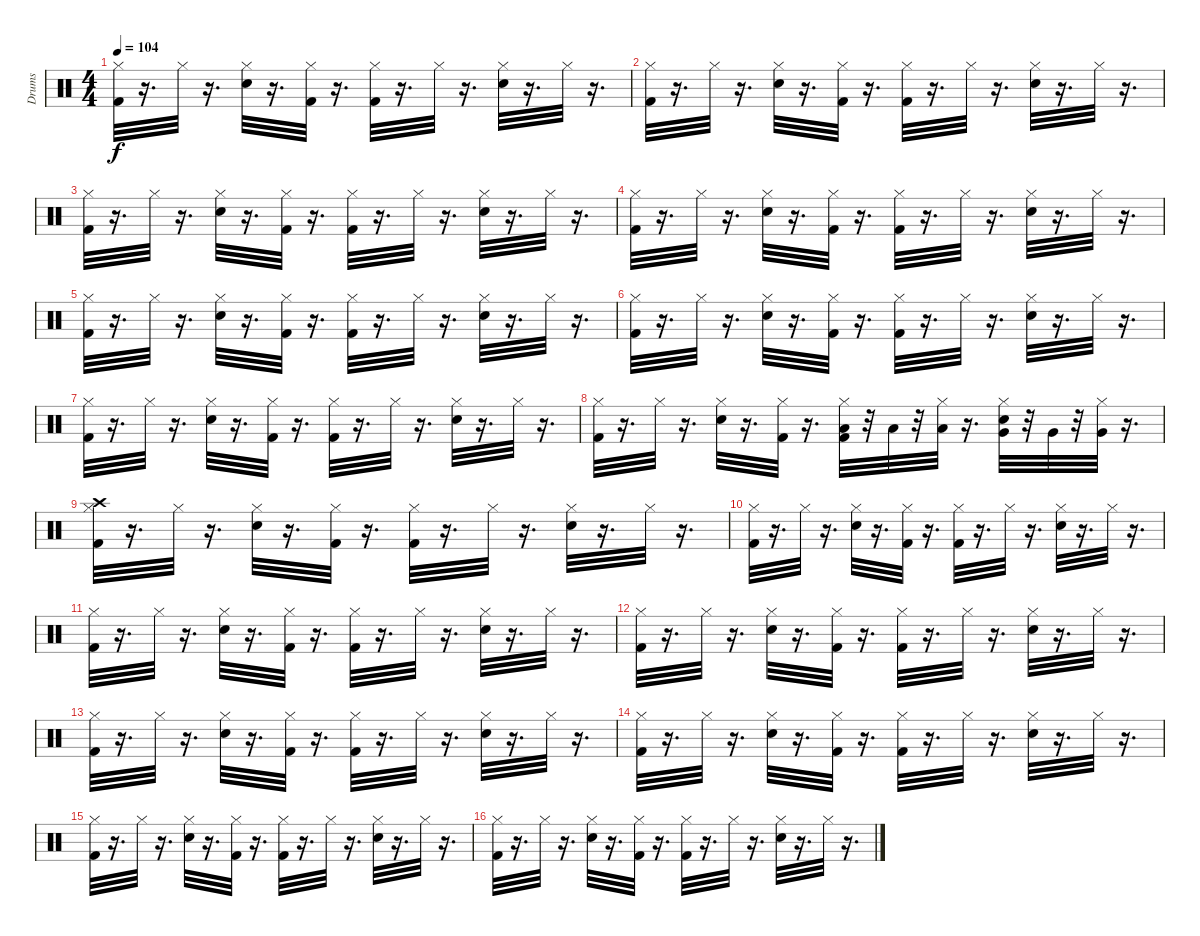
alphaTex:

\track ("Drums" "Drums") {instrument percussion}
\staff {score}
\articulation defaults
\ts (4 4)
\tempo 104
\clef neutral
\ks c
("Hi-Hat (closed)" "Kick (hit) 2").32{dy f} r.16{d} "Hi-Hat (closed)".32 r.16{d} ("Hi-Hat (closed)" "Snare (hit) 2").32 r.16{d} ("Kick (hit) 2" "Hi-Hat (closed)").32 r.16{d} ("Hi-Hat (closed)" "Kick (hit) 2").32 r.16{d} "Hi-Hat (closed)".32 r.16{d} ("Hi-Hat (closed)" "Snare (hit) 2").32 r.16{d} "Hi-Hat (closed)".32 r.16{d} |
("Hi-Hat (closed)" "Kick (hit) 2").32 r.16{d} "Hi-Hat (closed)".32 r.16{d} ("Hi-Hat (closed)" "Snare (hit) 2").32 r.16{d} ("Kick (hit) 2" "Hi-Hat (closed)").32 r.16{d} ("Hi-Hat (closed)" "Kick (hit) 2").32 r.16{d} "Hi-Hat (closed)".32 r.16{d} ("Hi-Hat (closed)" "Snare (hit) 2").32 r.16{d} "Hi-Hat (closed)".32 r.16{d} |
("Hi-Hat (closed)" "Kick (hit) 2").32 r.16{d} "Hi-Hat (closed)".32 r.16{d} ("Hi-Hat (closed)" "Snare (hit) 2").32 r.16{d} ("Kick (hit) 2" "Hi-Hat (closed)").32 r.16{d} ("Hi-Hat (closed)" "Kick (hit) 2").32 r.16{d} "Hi-Hat (closed)".32 r.16{d} ("Hi-Hat (closed)" "Snare (hit) 2").32 r.16{d} "Hi-Hat (closed)".32 r.16{d} |
("Hi-Hat (closed)" "Kick (hit) 2").32 r.16{d} "Hi-Hat (closed)".32 r.16{d} ("Hi-Hat (closed)" "Snare (hit) 2").32 r.16{d} ("Kick (hit) 2" "Hi-Hat (closed)").32 r.16{d} ("Hi-Hat (closed)" "Kick (hit) 2").32 r.16{d} "Hi-Hat (closed)".32 r.16{d} ("Hi-Hat (closed)" "Snare (hit) 2").32 r.16{d} "Hi-Hat (closed)".32 r.16{d} |
("Hi-Hat (closed)" "Kick (hit) 2").32 r.16{d} "Hi-Hat (closed)".32 r.16{d} ("Hi-Hat (closed)" "Snare (hit) 2").32 r.16{d} ("Kick (hit) 2" "Hi-Hat (closed)").32 r.16{d} ("Hi-Hat (closed)" "Kick (hit) 2").32 r.16{d} "Hi-Hat (closed)".32 r.16{d} ("Hi-Hat (closed)" "Snare (hit) 2").32 r.16{d} "Hi-Hat (closed)".32 r.16{d} |
("Hi-Hat (closed)" "Kick (hit) 2").32 r.16{d} "Hi-Hat (closed)".32 r.16{d} ("Hi-Hat (closed)" "Snare (hit) 2").32 r.16{d} ("Kick (hit) 2" "Hi-Hat (closed)").32 r.16{d} ("Hi-Hat (closed)" "Kick (hit) 2").32 r.16{d} "Hi-Hat (closed)".32 r.16{d} ("Hi-Hat (closed)" "Snare (hit) 2").32 r.16{d} "Hi-Hat (closed)".32 r.16{d} |
("Hi-Hat (closed)" "Kick (hit) 2").32 r.16{d} "Hi-Hat (closed)".32 r.16{d} ("Hi-Hat (closed)" "Snare (hit) 2").32 r.16{d} ("Kick (hit) 2" "Hi-Hat (closed)").32 r.16{d} ("Hi-Hat (closed)" "Kick (hit) 2").32 r.16{d} "Hi-Hat (closed)".32 r.16{d} ("Hi-Hat (closed)" "Snare (hit) 2").32 r.16{d} "Hi-Hat (closed)".32 r.16{d} |
("Hi-Hat (closed)" "Kick (hit) 2").32 r.16{d} "Hi-Hat (closed)".32 r.16{d} ("Hi-Hat (closed)" "Snare (hit) 2").32 r.16{d} ("Kick (hit) 2" "Hi-Hat (closed)").32 r.16{d} ("Low Tom (hit)" "Hi-Hat (closed)" "Kick (hit) 2").32 r.32 "Low Tom (hit)".32 r.32 ("Low Tom (hit)" "Hi-Hat (closed)").32 r.16{d} ("Very Low Tom (hit)" "Hi-Hat (closed)" "Snare (hit) 2").32 r.32 "Very Low Tom (hit)".32 r.32 ("Very Low Tom (hit)" "Hi-Hat (closed)").32 r.16{d} |
("Crash high (hit)" "Hi-Hat (closed)" "Kick (hit) 2").32 r.16{d} "Hi-Hat (closed)".32 r.16{d} ("Hi-Hat (closed)" "Snare (hit) 2").32 r.16{d} ("Kick (hit) 2" "Hi-Hat (closed)").32 r.16{d} ("Hi-Hat (closed)" "Kick (hit) 2").32 r.16{d} "Hi-Hat (closed)".32 r.16{d} ("Hi-Hat (closed)" "Snare (hit) 2").32 r.16{d} "Hi-Hat (closed)".32 r.16{d} |
("Hi-Hat (closed)" "Kick (hit) 2").32 r.16{d} "Hi-Hat (closed)".32 r.16{d} ("Hi-Hat (closed)" "Snare (hit) 2").32 r.16{d} ("Kick (hit) 2" "Hi-Hat (closed)").32 r.16{d} ("Hi-Hat (closed)" "Kick (hit) 2").32 r.16{d} "Hi-Hat (closed)".32 r.16{d} ("Hi-Hat (closed)" "Snare (hit) 2").32 r.16{d} "Hi-Hat (closed)".32 r.16{d} |
("Hi-Hat (closed)" "Kick (hit) 2").32 r.16{d} "Hi-Hat (closed)".32 r.16{d} ("Hi-Hat (closed)" "Snare (hit) 2").32 r.16{d} ("Kick (hit) 2" "Hi-Hat (closed)").32 r.16{d} ("Hi-Hat (closed)" "Kick (hit) 2").32 r.16{d} "Hi-Hat (closed)".32 r.16{d} ("Hi-Hat (closed)" "Snare (hit) 2").32 r.16{d} "Hi-Hat (closed)".32 r.16{d} |
("Hi-Hat (closed)" "Kick (hit) 2").32 r.16{d} "Hi-Hat (closed)".32 r.16{d} ("Hi-Hat (closed)" "Snare (hit) 2").32 r.16{d} ("Kick (hit) 2" "Hi-Hat (closed)").32 r.16{d} ("Hi-Hat (closed)" "Kick (hit) 2").32 r.16{d} "Hi-Hat (closed)".32 r.16{d} ("Hi-Hat (closed)" "Snare (hit) 2").32 r.16{d} "Hi-Hat (closed)".32 r.16{d} |
("Hi-Hat (closed)" "Kick (hit) 2").32 r.16{d} "Hi-Hat (closed)".32 r.16{d} ("Hi-Hat (closed)" "Snare (hit) 2").32 r.16{d} ("Kick (hit) 2" "Hi-Hat (closed)").32 r.16{d} ("Hi-Hat (closed)" "Kick (hit) 2").32 r.16{d} "Hi-Hat (closed)".32 r.16{d} ("Hi-Hat (closed)" "Snare (hit) 2").32 r.16{d} "Hi-Hat (closed)".32 r.16{d} |
("Hi-Hat (closed)" "Kick (hit) 2").32 r.16{d} "Hi-Hat (closed)".32 r.16{d} ("Hi-Hat (closed)" "Snare (hit) 2").32 r.16{d} ("Kick (hit) 2" "Hi-Hat (closed)").32 r.16{d} ("Hi-Hat (closed)" "Kick (hit) 2").32 r.16{d} "Hi-Hat (closed)".32 r.16{d} ("Hi-Hat (closed)" "Snare (hit) 2").32 r.16{d} "Hi-Hat (closed)".32 r.16{d} |
("Hi-Hat (closed)" "Kick (hit) 2").32 r.16{d} "Hi-Hat (closed)".32 r.16{d} ("Hi-Hat (closed)" "Snare (hit) 2").32 r.16{d} ("Kick (hit) 2" "Hi-Hat (closed)").32 r.16{d} ("Hi-Hat (closed)" "Kick (hit) 2").32 r.16{d} "Hi-Hat (closed)".32 r.16{d} ("Hi-Hat (closed)" "Snare (hit) 2").32 r.16{d} "Hi-Hat (closed)".32 r.16{d} |
("Hi-Hat (closed)" "Kick (hit) 2").32 r.16{d} "Hi-Hat (closed)".32 r.16{d} ("Hi-Hat (closed)" "Snare (hit) 2").32 r.16{d} ("Kick (hit) 2" "Hi-Hat (closed)").32 r.16{d} ("Hi-Hat (closed)" "Kick (hit) 2").32 r.16{d} "Hi-Hat (closed)".32 r.16{d} ("Hi-Hat (closed)" "Snare (hit) 2").32 r.16{d} "Hi-Hat (closed)".32 r.16{d}
